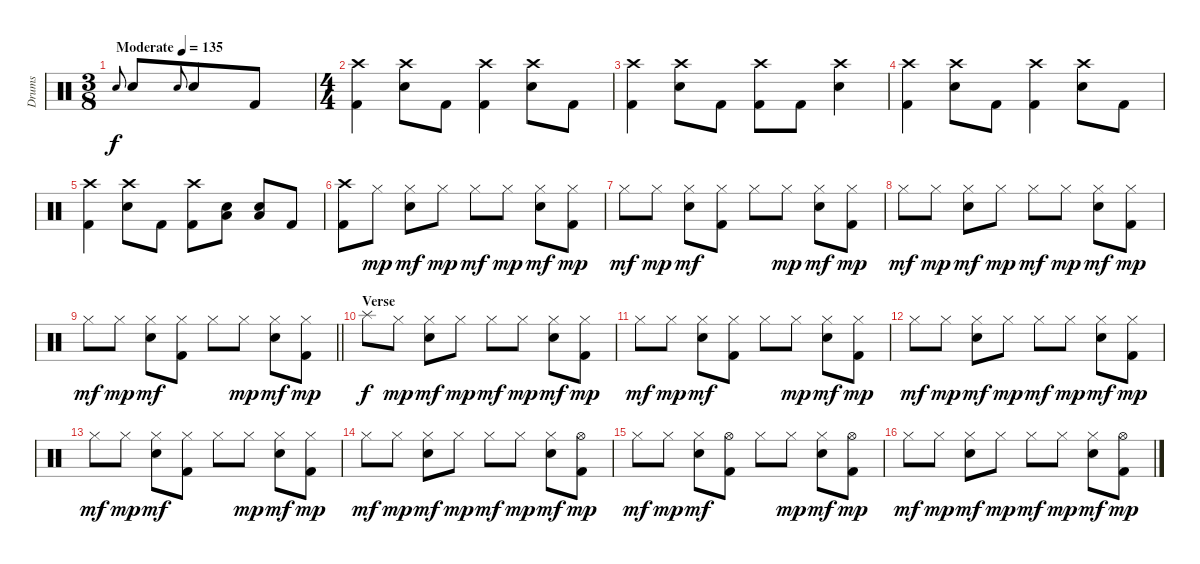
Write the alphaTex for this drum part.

\track ("Drums" "Drums") {instrument percussion}
\staff {score}
\articulation defaults
\ts (3 8)
\tempo (135 "Moderate")
\clef neutral
\ks c "Electric Snare (hit)".8{gr onbeat dy f} "Electric Snare (hit)".8 "Electric Snare (hit)".8{gr onbeat} "Electric Snare (hit)".8 "Kick (hit) 2".8
|
\ts (4 4)
("Crash high (hit)" "Kick (hit) 2").4 ("Crash high (hit)" "Electric Snare (hit)").8 "Kick (hit) 2".8 ("Crash high (hit)" "Kick (hit) 2").4 ("Crash high (hit)" "Electric Snare (hit)").8 "Kick (hit) 2".8 |
("Crash high (hit)" "Kick (hit) 2").4 ("Crash high (hit)" "Electric Snare (hit)").8 "Kick (hit) 2".8 ("Crash high (hit)" "Kick (hit) 2").8 "Kick (hit) 2".8 ("Crash high (hit)" "Electric Snare (hit)").4 |
("Crash high (hit)" "Kick (hit) 2").4 ("Crash high (hit)" "Electric Snare (hit)").8 "Kick (hit) 2".8 ("Crash high (hit)" "Kick (hit) 2").4 ("Crash high (hit)" "Electric Snare (hit)").8 "Kick (hit) 2".8 |
("Crash high (hit)" "Kick (hit) 2").4 ("Crash high (hit)" "Electric Snare (hit)").8 "Kick (hit) 2".8 ("Crash high (hit)" "Kick (hit) 2").8 ("Low Tom (hit)" "Electric Snare (hit)").8 ("Low Tom (hit)" "Electric Snare (hit)").8 "Kick (hit) 2".8 |
("Crash high (hit)" "Kick (hit) 2").8 "Hi-Hat (closed)".8{dy mp} ("Hi-Hat (closed)" "Electric Snare (hit)").8{dy mf} "Hi-Hat (closed)".8{dy mp} "Hi-Hat (closed)".8{dy mf} "Hi-Hat (closed)".8{dy mp} ("Hi-Hat (closed)" "Electric Snare (hit)").8{dy mf} ("Hi-Hat (closed)" "Kick (hit) 2").8{dy mp} |
"Hi-Hat (closed)".8{dy mf} "Hi-Hat (closed)".8{dy mp} ("Hi-Hat (closed)" "Electric Snare (hit)").8{dy mf} ("Hi-Hat (closed)" "Kick (hit) 2").8 "Hi-Hat (closed)".8 "Hi-Hat (closed)".8{dy mp} ("Hi-Hat (closed)" "Electric Snare (hit)").8{dy mf} ("Hi-Hat (closed)" "Kick (hit) 2").8{dy mp} |
"Hi-Hat (closed)".8{dy mf} "Hi-Hat (closed)".8{dy mp} ("Hi-Hat (closed)" "Electric Snare (hit)").8{dy mf} "Hi-Hat (closed)".8{dy mp} "Hi-Hat (closed)".8{dy mf} "Hi-Hat (closed)".8{dy mp} ("Hi-Hat (closed)" "Electric Snare (hit)").8{dy mf} ("Hi-Hat (closed)" "Kick (hit) 2").8{dy mp} |
\barLineRight lightlight "Hi-Hat (closed)".8{dy mf} "Hi-Hat (closed)".8{dy mp}
("Hi-Hat (closed)" "Electric Snare (hit)").8{dy mf} ("Hi-Hat (closed)" "Kick (hit) 2").8 "Hi-Hat (closed)".8 "Hi-Hat (closed)".8{dy mp} ("Hi-Hat (closed)" "Electric Snare (hit)").8{dy mf} ("Hi-Hat (closed)" "Kick (hit) 2").8{dy mp} |
\section ("" "Verse")
"Splash (hit)".8{dy f} "Hi-Hat (closed)".8{dy mp} ("Hi-Hat (closed)" "Electric Snare (hit)").8{dy mf} "Hi-Hat (closed)".8{dy mp} "Hi-Hat (closed)".8{dy mf} "Hi-Hat (closed)".8{dy mp} ("Hi-Hat (closed)" "Electric Snare (hit)").8{dy mf} ("Hi-Hat (closed)" "Kick (hit) 2").8{dy mp} |
"Hi-Hat (closed)".8{dy mf} "Hi-Hat (closed)".8{dy mp} ("Hi-Hat (closed)" "Electric Snare (hit)").8{dy mf} ("Hi-Hat (closed)" "Kick (hit) 2").8 "Hi-Hat (closed)".8 "Hi-Hat (closed)".8{dy mp} ("Hi-Hat (closed)" "Electric Snare (hit)").8{dy mf} ("Hi-Hat (closed)" "Kick (hit) 2").8{dy mp} |
"Hi-Hat (closed)".8{dy mf} "Hi-Hat (closed)".8{dy mp} ("Hi-Hat (closed)" "Electric Snare (hit)").8{dy mf} "Hi-Hat (closed)".8{dy mp} "Hi-Hat (closed)".8{dy mf} "Hi-Hat (closed)".8{dy mp} ("Hi-Hat (closed)" "Electric Snare (hit)").8{dy mf} ("Hi-Hat (closed)" "Kick (hit) 2").8{dy mp} |
"Hi-Hat (closed)".8{dy mf} "Hi-Hat (closed)".8{dy mp} ("Hi-Hat (closed)" "Electric Snare (hit)").8{dy mf} ("Hi-Hat (closed)" "Kick (hit) 2").8 "Hi-Hat (closed)".8 "Hi-Hat (closed)".8{dy mp} ("Hi-Hat (closed)" "Electric Snare (hit)").8{dy mf} ("Hi-Hat (closed)" "Kick (hit) 2").8{dy mp} |
"Hi-Hat (closed)".8{dy mf} "Hi-Hat (closed)".8{dy mp} ("Hi-Hat (closed)" "Electric Snare (hit)").8{dy mf} "Hi-Hat (closed)".8{dy mp} "Hi-Hat (closed)".8{dy mf} "Hi-Hat (closed)".8{dy mp} ("Hi-Hat (closed)" "Electric Snare (hit)").8{dy mf} ("Hi-Hat (open)" "Kick (hit) 2").8{dy mp} |
"Hi-Hat (closed)".8{dy mf} "Hi-Hat (closed)".8{dy mp} ("Hi-Hat (closed)" "Electric Snare (hit)").8{dy mf} ("Hi-Hat (open)" "Kick (hit) 2").8 "Hi-Hat (closed)".8 "Hi-Hat (closed)".8{dy mp} ("Hi-Hat (closed)" "Electric Snare (hit)").8{dy mf} ("Hi-Hat (open)" "Kick (hit) 2").8{dy mp} |
"Hi-Hat (closed)".8{dy mf} "Hi-Hat (closed)".8{dy mp} ("Hi-Hat (closed)" "Electric Snare (hit)").8{dy mf} "Hi-Hat (closed)".8{dy mp} "Hi-Hat (closed)".8{dy mf} "Hi-Hat (closed)".8{dy mp} ("Hi-Hat (closed)" "Electric Snare (hit)").8{dy mf} ("Hi-Hat (open)" "Kick (hit) 2").8{dy mp}
